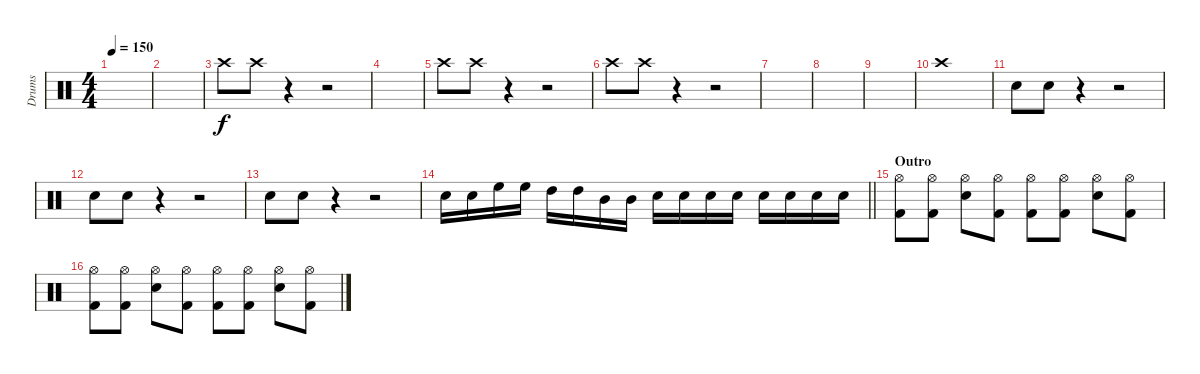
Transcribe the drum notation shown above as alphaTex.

\track ("Drums" "Drums") {instrument percussion}
\staff {score}
\articulation defaults
\ts (4 4)
\tempo 150
\clef neutral
\ks c
|
|
"Crash high (hit)".8 "Crash high (hit)".8 r.4 r.2 |
|
"Crash high (hit)".8 "Crash high (hit)".8 r.4 r.2 |
"Crash high (hit)".8 "Crash high (hit)".8 r.4 r.2 |
|
|
|
"Crash high (hit)".1 |
"Snare (hit) 2".8 "Snare (hit) 2".8 r.4 r.2 |
"Snare (hit) 2".8 "Snare (hit) 2".8 r.4 r.2 |
"Snare (hit) 2".8 "Snare (hit) 2".8 r.4 r.2 |
\barLineRight lightlight "Snare (hit) 2".16 "Snare (hit) 2".16 "High Floor Tom (hit)".16 "High Floor Tom (hit)".16 "High Tom (hit)".16 "High Tom (hit)".16 "Mid Tom (hit)".16 "Mid Tom (hit)".16 "Snare (hit) 2".16 "Snare (hit) 2".16 "Snare (hit) 2".16 "Snare (hit) 2".16 "Snare (hit) 2".16 "Snare (hit) 2".16 "Snare (hit) 2".16 "Snare (hit) 2".16
|
\section ("" "Outro")
("Hi-Hat (open)" "Kick (hit) 2").8 ("Hi-Hat (open)" "Kick (hit) 2").8 ("Snare (hit) 2" "Hi-Hat (open)").8 ("Hi-Hat (open)" "Kick (hit) 2").8 ("Hi-Hat (open)" "Kick (hit) 2").8 ("Hi-Hat (open)" "Kick (hit) 2").8 ("Snare (hit) 2" "Hi-Hat (open)").8 ("Hi-Hat (open)" "Kick (hit) 2").8 |
("Hi-Hat (open)" "Kick (hit) 2").8 ("Hi-Hat (open)" "Kick (hit) 2").8 ("Snare (hit) 2" "Hi-Hat (open)").8 ("Hi-Hat (open)" "Kick (hit) 2").8 ("Hi-Hat (open)" "Kick (hit) 2").8 ("Hi-Hat (open)" "Kick (hit) 2").8 ("Snare (hit) 2" "Hi-Hat (open)").8 ("Hi-Hat (open)" "Kick (hit) 2").8
